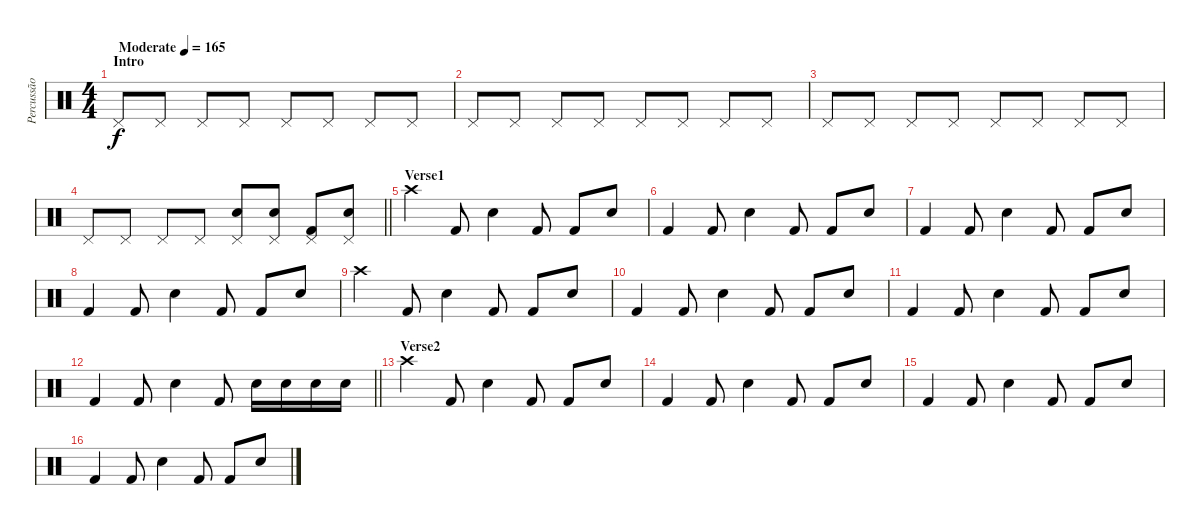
\track ("Percussão" "Percussão") {instrument percussion}
\staff {score}
\articulation defaults
\ts (4 4)
\section ("" "Intro")
\tempo (165 "Moderate")
\clef neutral
\ks c "Pedal Hi-Hat (hit)".8{dy f} "Pedal Hi-Hat (hit)".8 "Pedal Hi-Hat (hit)".8 "Pedal Hi-Hat (hit)".8 "Pedal Hi-Hat (hit)".8 "Pedal Hi-Hat (hit)".8 "Pedal Hi-Hat (hit)".8 "Pedal Hi-Hat (hit)".8
|
"Pedal Hi-Hat (hit)".8 "Pedal Hi-Hat (hit)".8 "Pedal Hi-Hat (hit)".8 "Pedal Hi-Hat (hit)".8 "Pedal Hi-Hat (hit)".8 "Pedal Hi-Hat (hit)".8 "Pedal Hi-Hat (hit)".8 "Pedal Hi-Hat (hit)".8 |
"Pedal Hi-Hat (hit)".8 "Pedal Hi-Hat (hit)".8 "Pedal Hi-Hat (hit)".8 "Pedal Hi-Hat (hit)".8 "Pedal Hi-Hat (hit)".8 "Pedal Hi-Hat (hit)".8 "Pedal Hi-Hat (hit)".8 "Pedal Hi-Hat (hit)".8 |
\barLineRight lightlight "Pedal Hi-Hat (hit)".8 "Pedal Hi-Hat (hit)".8 "Pedal Hi-Hat (hit)".8 "Pedal Hi-Hat (hit)".8
("Pedal Hi-Hat (hit)" "Snare (hit) 2").8 ("Pedal Hi-Hat (hit)" "Snare (hit) 2").8 ("Pedal Hi-Hat (hit)" "Kick (hit) 2").8 ("Pedal Hi-Hat (hit)" "Snare (hit) 2").8 |
\section ("" "Verse1")
"Crash high (hit)".4 "Kick (hit) 2".8 "Snare (hit) 2".4 "Kick (hit) 2".8 "Kick (hit) 2".8 "Snare (hit) 2".8 |
"Kick (hit) 2".4 "Kick (hit) 2".8 "Snare (hit) 2".4 "Kick (hit) 2".8 "Kick (hit) 2".8 "Snare (hit) 2".8 |
"Kick (hit) 2".4 "Kick (hit) 2".8 "Snare (hit) 2".4 "Kick (hit) 2".8 "Kick (hit) 2".8 "Snare (hit) 2".8 |
"Kick (hit) 2".4 "Kick (hit) 2".8 "Snare (hit) 2".4 "Kick (hit) 2".8 "Kick (hit) 2".8 "Snare (hit) 2".8 |
"Crash high (hit)".4 "Kick (hit) 2".8 "Snare (hit) 2".4 "Kick (hit) 2".8 "Kick (hit) 2".8 "Snare (hit) 2".8 |
"Kick (hit) 2".4 "Kick (hit) 2".8 "Snare (hit) 2".4 "Kick (hit) 2".8 "Kick (hit) 2".8 "Snare (hit) 2".8 |
"Kick (hit) 2".4 "Kick (hit) 2".8 "Snare (hit) 2".4 "Kick (hit) 2".8 "Kick (hit) 2".8 "Snare (hit) 2".8 |
\barLineRight lightlight "Kick (hit) 2".4 "Kick (hit) 2".8 "Snare (hit) 2".4 "Kick (hit) 2".8 "Snare (hit) 2".16 "Snare (hit) 2".16 "Snare (hit) 2".16 "Snare (hit) 2".16
|
\section ("" "Verse2")
"Crash high (hit)".4 "Kick (hit) 2".8 "Snare (hit) 2".4 "Kick (hit) 2".8 "Kick (hit) 2".8 "Snare (hit) 2".8 |
"Kick (hit) 2".4 "Kick (hit) 2".8 "Snare (hit) 2".4 "Kick (hit) 2".8 "Kick (hit) 2".8 "Snare (hit) 2".8 |
"Kick (hit) 2".4 "Kick (hit) 2".8 "Snare (hit) 2".4 "Kick (hit) 2".8 "Kick (hit) 2".8 "Snare (hit) 2".8 |
"Kick (hit) 2".4 "Kick (hit) 2".8 "Snare (hit) 2".4 "Kick (hit) 2".8 "Kick (hit) 2".8 "Snare (hit) 2".8
